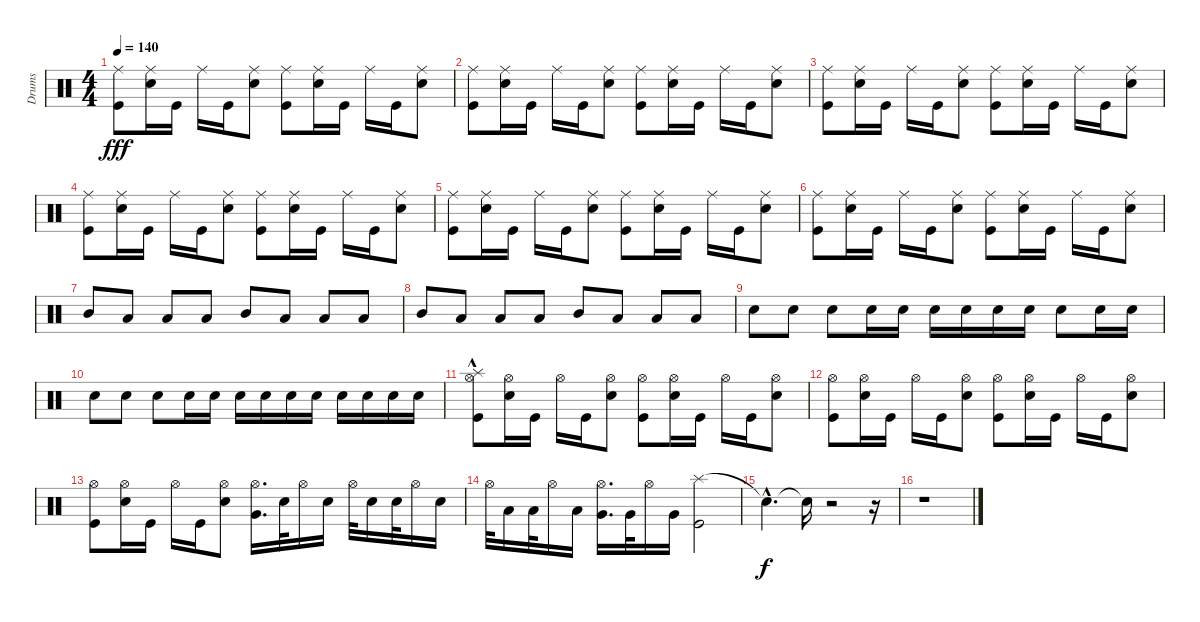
\track ("Drums" "Drums") {instrument percussion}
\staff {score}
\articulation defaults
\ts (4 4)
\tempo 140
\clef neutral
\ks c
("Ride (middle)" "Kick (hit)").8{dy fff} ("Ride (middle)" "Electric Snare (hit)").16 "Kick (hit)".16 "Ride (middle)".16 "Kick (hit)".16 ("Ride (middle)" "Electric Snare (hit)").8 ("Kick (hit)" "Ride (middle)").8 ("Electric Snare (hit)" "Ride (middle)").16 "Kick (hit)".16 "Ride (middle)".16 "Kick (hit)".16 ("Ride (middle)" "Electric Snare (hit)").8 |
("Kick (hit)" "Ride (middle)").8 ("Ride (middle)" "Electric Snare (hit)").16 "Kick (hit)".16 "Ride (middle)".16 "Kick (hit)".16 ("Electric Snare (hit)" "Ride (middle)").8 ("Ride (middle)" "Kick (hit)").8 ("Electric Snare (hit)" "Ride (middle)").16 "Kick (hit)".16 "Ride (middle)".16 "Kick (hit)".16 ("Electric Snare (hit)" "Ride (middle)").8 |
("Kick (hit)" "Ride (middle)").8 ("Ride (middle)" "Electric Snare (hit)").16 "Kick (hit)".16 "Ride (middle)".16 "Kick (hit)".16 ("Ride (middle)" "Electric Snare (hit)").8 ("Kick (hit)" "Ride (middle)").8 ("Ride (middle)" "Electric Snare (hit)").16 "Kick (hit)".16 "Ride (middle)".16 "Kick (hit)".16 ("Ride (middle)" "Electric Snare (hit)").8 |
("Kick (hit)" "Ride (middle)").8 ("Electric Snare (hit)" "Ride (middle)").16 "Kick (hit)".16 "Ride (middle)".16 "Kick (hit)".16 ("Electric Snare (hit)" "Ride (middle)").8 ("Ride (middle)" "Kick (hit)").8 ("Ride (middle)" "Electric Snare (hit)").16 "Kick (hit)".16 "Ride (middle)".16 "Kick (hit)".16 ("Electric Snare (hit)" "Ride (middle)").8 |
("Ride (middle)" "Kick (hit)").8 ("Ride (middle)" "Electric Snare (hit)").16 "Kick (hit)".16 "Ride (middle)".16 "Kick (hit)".16 ("Ride (middle)" "Electric Snare (hit)").8 ("Ride (middle)" "Kick (hit)").8 ("Electric Snare (hit)" "Ride (middle)").16 "Kick (hit)".16 "Ride (middle)".16 "Kick (hit)".16 ("Ride (middle)" "Electric Snare (hit)").8 |
("Ride (middle)" "Kick (hit)").8 ("Electric Snare (hit)" "Ride (middle)").16 "Kick (hit)".16 "Ride (middle)".16 "Kick (hit)".16 ("Ride (middle)" "Electric Snare (hit)").8 ("Kick (hit)" "Ride (middle)").8 ("Electric Snare (hit)" "Ride (middle)").16 "Kick (hit)".16 "Ride (middle)".16 "Kick (hit)".16 ("Electric Snare (hit)" "Ride (middle)").8 |
"Mid Tom (hit)".8 "Low Tom (hit)".8 "Low Tom (hit)".8 "Low Tom (hit)".8 "Mid Tom (hit)".8 "Low Tom (hit)".8 "Low Tom (hit)".8 "Low Tom (hit)".8 |
"Mid Tom (hit)".8 "Low Tom (hit)".8 "Low Tom (hit)".8 "Low Tom (hit)".8 "Mid Tom (hit)".8 "Low Tom (hit)".8 "Low Tom (hit)".8 "Low Tom (hit)".8 |
"Electric Snare (hit)".8 "Electric Snare (hit)".8 "Electric Snare (hit)".8 "Electric Snare (hit)".16 "Electric Snare (hit)".16 "Electric Snare (hit)".16 "Electric Snare (hit)".16 "Electric Snare (hit)".16 "Electric Snare (hit)".16 "Electric Snare (hit)".8 "Electric Snare (hit)".16 "Electric Snare (hit)".16 |
"Electric Snare (hit)".8 "Electric Snare (hit)".8 "Electric Snare (hit)".8 "Electric Snare (hit)".16 "Electric Snare (hit)".16 "Electric Snare (hit)".16 "Electric Snare (hit)".16 "Electric Snare (hit)".16 "Electric Snare (hit)".16 "Electric Snare (hit)".16 "Electric Snare (hit)".16 "Electric Snare (hit)".16 "Electric Snare (hit)".16 |
("Splash (hit)"{hac} "Hi-Hat (open)" "Kick (hit)").8 ("Electric Snare (hit)" "Hi-Hat (open)").16 "Kick (hit)".16 "Hi-Hat (open)".16 "Kick (hit)".16 ("Electric Snare (hit)" "Hi-Hat (open)").8 ("Hi-Hat (open)" "Kick (hit)").8 ("Hi-Hat (open)" "Electric Snare (hit)").16 "Kick (hit)".16 "Hi-Hat (open)".16 "Kick (hit)".16 ("Electric Snare (hit)" "Hi-Hat (open)").8 |
("Hi-Hat (open)" "Kick (hit)").8 ("Electric Snare (hit)" "Hi-Hat (open)").16 "Kick (hit)".16 "Hi-Hat (open)".16 "Kick (hit)".16 ("Electric Snare (hit)" "Hi-Hat (open)").8 ("Hi-Hat (open)" "Kick (hit)").8 ("Electric Snare (hit)" "Hi-Hat (open)").16 "Kick (hit)".16 "Hi-Hat (open)".16 "Kick (hit)".16 ("Electric Snare (hit)" "Hi-Hat (open)").8 |
("Hi-Hat (open)" "Kick (hit)").8 ("Hi-Hat (open)" "Electric Snare (hit)").16 "Kick (hit)".16 "Hi-Hat (open)".16 "Kick (hit)".16 ("Electric Snare (hit)" "Hi-Hat (open)").8 ("Hi-Hat (open)" "Very Low Tom (hit)").16{d} "Electric Snare (hit)".32 "Hi-Hat (open)".16 "Electric Snare (hit)".16 "Hi-Hat (open)".32 "Electric Snare (hit)".16 "Electric Snare (hit)".32 "Hi-Hat (open)".16 "Electric Snare (hit)".16 |
"Hi-Hat (open)".32 "Low Tom (hit)".16 "Low Tom (hit)".32 "Hi-Hat (open)".16 "Low Tom (hit)".16 ("Hi-Hat (open)" "Very Low Tom (hit)").16{d} "Very Low Tom (hit)".32 "Hi-Hat (open)".16 "Very Low Tom (hit)".16 ("Splash (hit)" "Kick (hit)").2 |
"Snare (hit)"{hac t}.4{d dy f} "Snare (hit)"{t}.16 r.2 r.16 |
r.1
